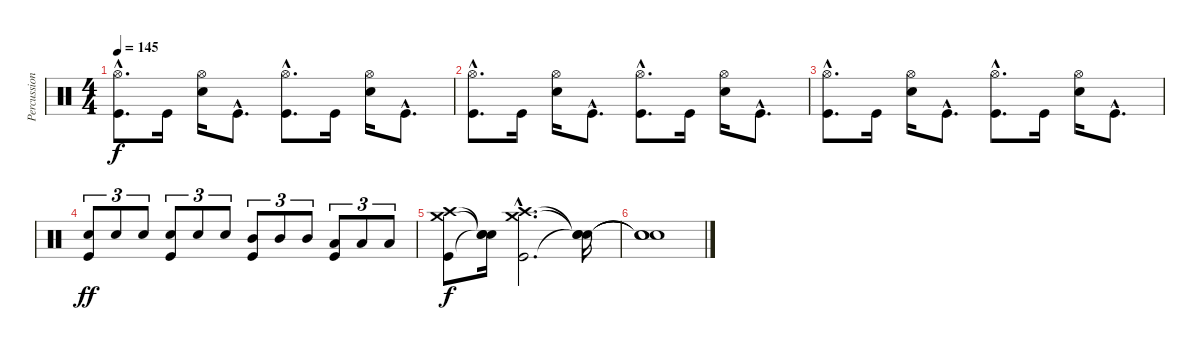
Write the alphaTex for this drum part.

\track ("Percussions" "Percussion") {instrument percussion}
\staff {score}
\articulation defaults
\ts (4 4)
\tempo 145
\clef neutral
\ks c
("Hi-Hat (open)"{hac} "Kick (hit)"{hac}).8{d dy f} "Kick (hit)".16 ("Hi-Hat (open)" "Snare (hit) 2").16 "Kick (hit)"{hac}.8{d} ("Hi-Hat (open)"{hac} "Kick (hit)"{hac}).8{d} "Kick (hit)".16 ("Hi-Hat (open)" "Snare (hit) 2").16 "Kick (hit)"{hac}.8{d} |
("Hi-Hat (open)"{hac} "Kick (hit)"{hac}).8{d} "Kick (hit)".16 ("Hi-Hat (open)" "Snare (hit) 2").16 "Kick (hit)"{hac}.8{d} ("Hi-Hat (open)"{hac} "Kick (hit)"{hac}).8{d} "Kick (hit)".16 ("Hi-Hat (open)" "Snare (hit) 2").16 "Kick (hit)"{hac}.8{d} |
("Hi-Hat (open)"{hac} "Kick (hit)"{hac}).8{d} "Kick (hit)".16 ("Hi-Hat (open)" "Snare (hit) 2").16 "Kick (hit)"{hac}.8{d} ("Hi-Hat (open)"{hac} "Kick (hit)"{hac}).8{d} "Kick (hit)".16 ("Hi-Hat (open)" "Snare (hit) 2").16 "Kick (hit)"{hac}.8{d} |
("Snare (hit) 2" "Kick (hit)").8{tu (3 2) dy ff} "Snare (hit) 2".8{tu (3 2)} "Snare (hit) 2".8{tu (3 2)} ("Snare (hit) 2" "Kick (hit)").8{tu (3 2)} "Snare (hit) 2".8{tu (3 2)} "Snare (hit) 2".8{tu (3 2)} ("Mid Tom (hit)" "Kick (hit)").8{tu (3 2)} "Mid Tom (hit)".8{tu (3 2)} "Mid Tom (hit)".8{tu (3 2)} ("Low Tom (hit)" "Kick (hit)").8{tu (3 2)} "Low Tom (hit)".8{tu (3 2)} "Low Tom (hit)".8{tu (3 2)} |
("Crash medium (hit)" "Crash high (hit)" "Kick (hit)").8{dy f} ("Snare (hit)"{t} "Snare (hit)"{t} "Snare (hit)"{t}).16 ("Crash medium (hit)"{hac} "Crash high (hit)"{hac} "Kick (hit)"{hac}).2{d} ("Snare (hit)"{t} "Snare (hit)"{t} "Snare (hit)"{t}).16 |
("Snare (hit)"{t} "Snare (hit)"{t} "Snare (hit)"{t}).1
